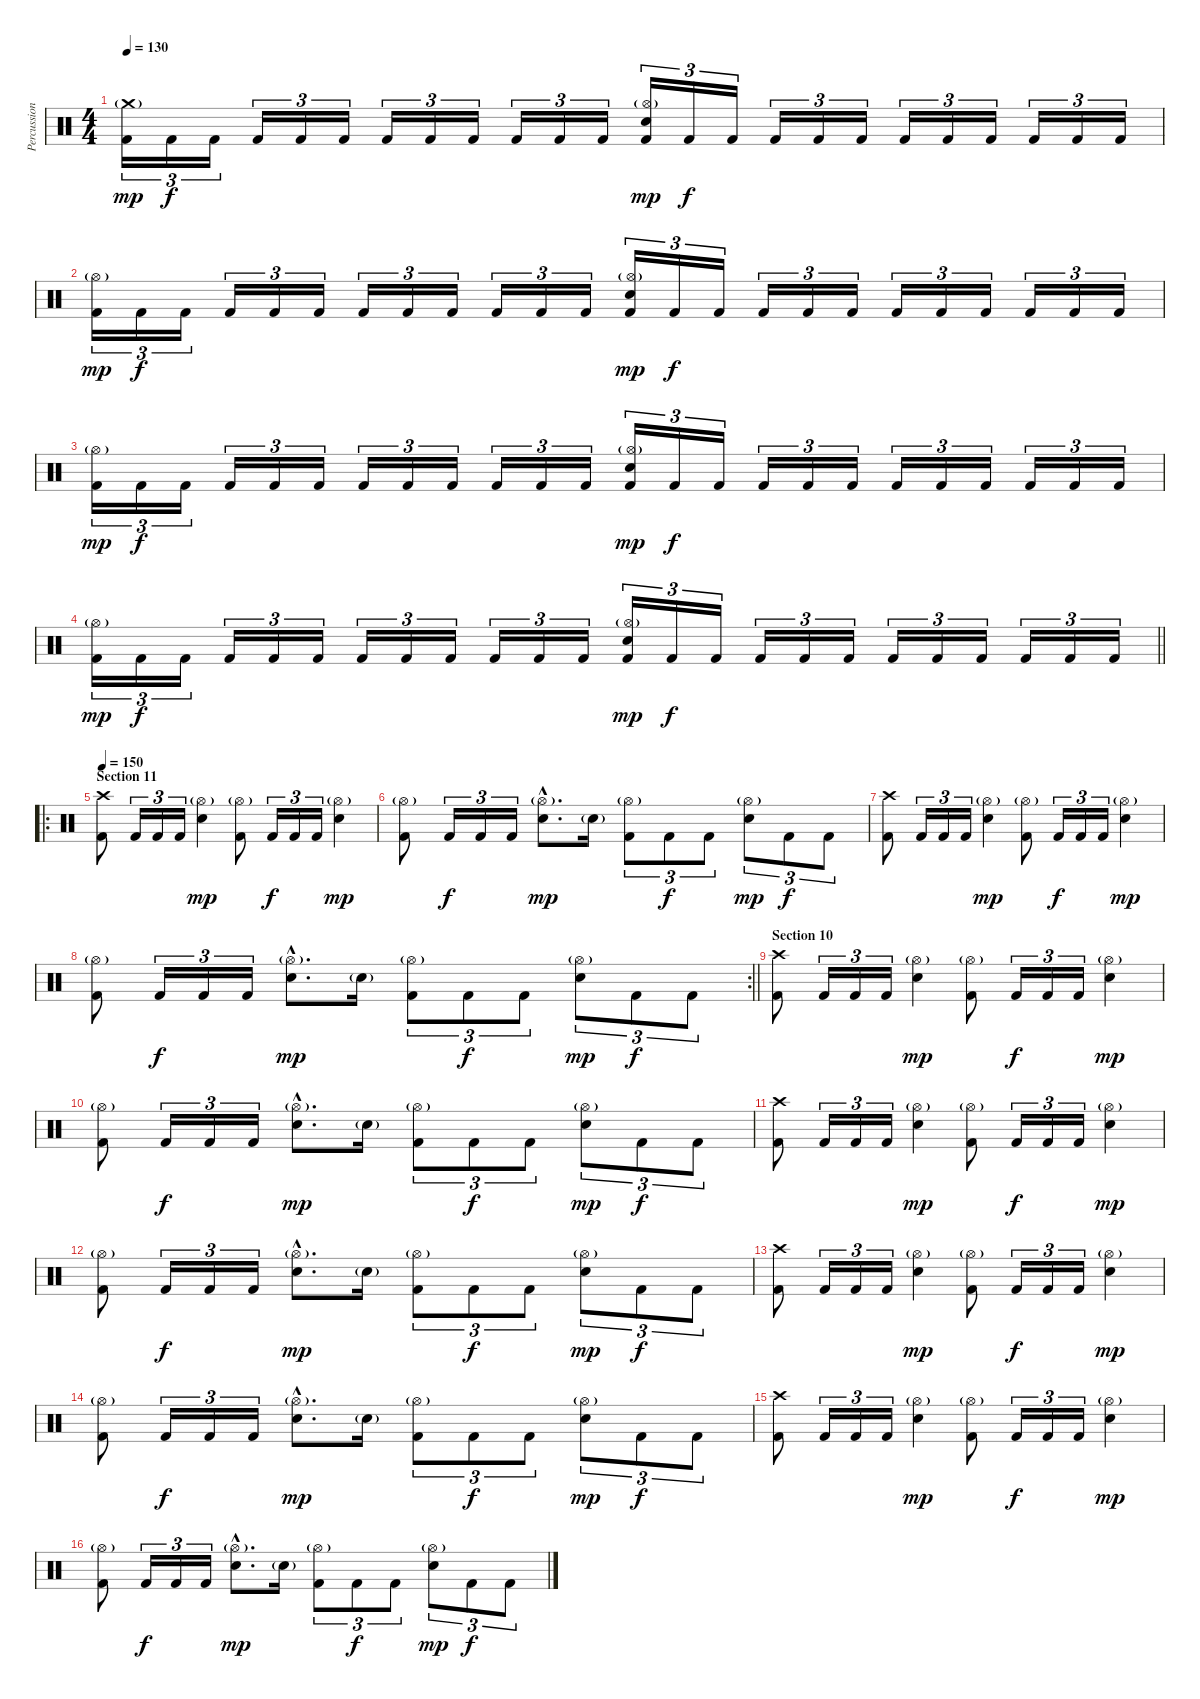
\track ("Percussions" "Percussion") {instrument percussion}
\staff {score}
\articulation defaults
\ts (4 4)
\tempo 130
\clef neutral
\ks c
("Crash medium (hit)"{g} "Kick (hit) 2").16{tu (3 2) dy mp} "Kick (hit) 2".16{tu (3 2) dy f} "Kick (hit) 2".16{tu (3 2)} "Kick (hit) 2".16{tu (3 2)} "Kick (hit) 2".16{tu (3 2)} "Kick (hit) 2".16{tu (3 2)} "Kick (hit) 2".16{tu (3 2)} "Kick (hit) 2".16{tu (3 2)} "Kick (hit) 2".16{tu (3 2)} "Kick (hit) 2".16{tu (3 2)} "Kick (hit) 2".16{tu (3 2)} "Kick (hit) 2".16{tu (3 2)} ("Hi-Hat (open)"{g} "Electric Snare (hit)" "Kick (hit) 2").16{tu (3 2) dy mp} "Kick (hit) 2".16{tu (3 2) dy f} "Kick (hit) 2".16{tu (3 2)} "Kick (hit) 2".16{tu (3 2)} "Kick (hit) 2".16{tu (3 2)} "Kick (hit) 2".16{tu (3 2)} "Kick (hit) 2".16{tu (3 2)} "Kick (hit) 2".16{tu (3 2)} "Kick (hit) 2".16{tu (3 2)} "Kick (hit) 2".16{tu (3 2)} "Kick (hit) 2".16{tu (3 2)} "Kick (hit) 2".16{tu (3 2)} |
("Hi-Hat (open)"{g} "Kick (hit) 2").16{tu (3 2) dy mp} "Kick (hit) 2".16{tu (3 2) dy f} "Kick (hit) 2".16{tu (3 2)} "Kick (hit) 2".16{tu (3 2)} "Kick (hit) 2".16{tu (3 2)} "Kick (hit) 2".16{tu (3 2)} "Kick (hit) 2".16{tu (3 2)} "Kick (hit) 2".16{tu (3 2)} "Kick (hit) 2".16{tu (3 2)} "Kick (hit) 2".16{tu (3 2)} "Kick (hit) 2".16{tu (3 2)} "Kick (hit) 2".16{tu (3 2)} ("Hi-Hat (open)"{g} "Electric Snare (hit)" "Kick (hit) 2").16{tu (3 2) dy mp} "Kick (hit) 2".16{tu (3 2) dy f} "Kick (hit) 2".16{tu (3 2)} "Kick (hit) 2".16{tu (3 2)} "Kick (hit) 2".16{tu (3 2)} "Kick (hit) 2".16{tu (3 2)} "Kick (hit) 2".16{tu (3 2)} "Kick (hit) 2".16{tu (3 2)} "Kick (hit) 2".16{tu (3 2)} "Kick (hit) 2".16{tu (3 2)} "Kick (hit) 2".16{tu (3 2)} "Kick (hit) 2".16{tu (3 2)} |
("Hi-Hat (open)"{g} "Kick (hit) 2").16{tu (3 2) dy mp} "Kick (hit) 2".16{tu (3 2) dy f} "Kick (hit) 2".16{tu (3 2)} "Kick (hit) 2".16{tu (3 2)} "Kick (hit) 2".16{tu (3 2)} "Kick (hit) 2".16{tu (3 2)} "Kick (hit) 2".16{tu (3 2)} "Kick (hit) 2".16{tu (3 2)} "Kick (hit) 2".16{tu (3 2)} "Kick (hit) 2".16{tu (3 2)} "Kick (hit) 2".16{tu (3 2)} "Kick (hit) 2".16{tu (3 2)} ("Hi-Hat (open)"{g} "Electric Snare (hit)" "Kick (hit) 2").16{tu (3 2) dy mp} "Kick (hit) 2".16{tu (3 2) dy f} "Kick (hit) 2".16{tu (3 2)} "Kick (hit) 2".16{tu (3 2)} "Kick (hit) 2".16{tu (3 2)} "Kick (hit) 2".16{tu (3 2)} "Kick (hit) 2".16{tu (3 2)} "Kick (hit) 2".16{tu (3 2)} "Kick (hit) 2".16{tu (3 2)} "Kick (hit) 2".16{tu (3 2)} "Kick (hit) 2".16{tu (3 2)} "Kick (hit) 2".16{tu (3 2)} |
\barLineRight lightlight
("Hi-Hat (open)"{g} "Kick (hit) 2").16{tu (3 2) dy mp} "Kick (hit) 2".16{tu (3 2) dy f} "Kick (hit) 2".16{tu (3 2)} "Kick (hit) 2".16{tu (3 2)} "Kick (hit) 2".16{tu (3 2)} "Kick (hit) 2".16{tu (3 2)} "Kick (hit) 2".16{tu (3 2)} "Kick (hit) 2".16{tu (3 2)} "Kick (hit) 2".16{tu (3 2)} "Kick (hit) 2".16{tu (3 2)} "Kick (hit) 2".16{tu (3 2)} "Kick (hit) 2".16{tu (3 2)} ("Hi-Hat (open)"{g} "Electric Snare (hit)" "Kick (hit) 2").16{tu (3 2) dy mp} "Kick (hit) 2".16{tu (3 2) dy f} "Kick (hit) 2".16{tu (3 2)} "Kick (hit) 2".16{tu (3 2)} "Kick (hit) 2".16{tu (3 2)} "Kick (hit) 2".16{tu (3 2)} "Kick (hit) 2".16{tu (3 2)} "Kick (hit) 2".16{tu (3 2)} "Kick (hit) 2".16{tu (3 2)} "Kick (hit) 2".16{tu (3 2)} "Kick (hit) 2".16{tu (3 2)} "Kick (hit) 2".16{tu (3 2)} |
\ro
\section ("" "Section 11")
\tempo 150
("Crash high (hit)" "Kick (hit) 2").8 "Kick (hit) 2".16{tu (3 2)} "Kick (hit) 2".16{tu (3 2)} "Kick (hit) 2".16{tu (3 2)} ("Hi-Hat (open)"{g} "Electric Snare (hit)").4{dy mp} ("Hi-Hat (open)"{g} "Kick (hit) 2").8 "Kick (hit) 2".16{tu (3 2) dy f} "Kick (hit) 2".16{tu (3 2)} "Kick (hit) 2".16{tu (3 2)} ("Hi-Hat (open)"{g} "Electric Snare (hit)").4{dy mp} |
("Hi-Hat (open)"{g} "Kick (hit) 2").8 "Kick (hit) 2".16{tu (3 2) dy f} "Kick (hit) 2".16{tu (3 2)} "Kick (hit) 2".16{tu (3 2)} ("Hi-Hat (open)"{g hac} "Electric Snare (hit)"{hac}).8{d dy mp} "Electric Snare (hit)"{g}.16 ("Hi-Hat (open)"{g} "Kick (hit) 2").8{tu (3 2)} "Kick (hit) 2".8{tu (3 2) dy f} "Kick (hit) 2".8{tu (3 2)} ("Hi-Hat (open)"{g} "Electric Snare (hit)").8{tu (3 2) dy mp} "Kick (hit) 2".8{tu (3 2) dy f} "Kick (hit) 2".8{tu (3 2)} |
("Crash high (hit)" "Kick (hit) 2").8 "Kick (hit) 2".16{tu (3 2)} "Kick (hit) 2".16{tu (3 2)} "Kick (hit) 2".16{tu (3 2)} ("Hi-Hat (open)"{g} "Electric Snare (hit)").4{dy mp} ("Hi-Hat (open)"{g} "Kick (hit) 2").8 "Kick (hit) 2".16{tu (3 2) dy f} "Kick (hit) 2".16{tu (3 2)} "Kick (hit) 2".16{tu (3 2)} ("Hi-Hat (open)"{g} "Electric Snare (hit)").4{dy mp} |
\rc 2
\barLineRight lightlight
("Hi-Hat (open)"{g} "Kick (hit) 2").8 "Kick (hit) 2".16{tu (3 2) dy f} "Kick (hit) 2".16{tu (3 2)} "Kick (hit) 2".16{tu (3 2)} ("Hi-Hat (open)"{g hac} "Electric Snare (hit)"{hac}).8{d dy mp} "Electric Snare (hit)"{g}.16 ("Hi-Hat (open)"{g} "Kick (hit) 2").8{tu (3 2)} "Kick (hit) 2".8{tu (3 2) dy f} "Kick (hit) 2".8{tu (3 2)} ("Hi-Hat (open)"{g} "Electric Snare (hit)").8{tu (3 2) dy mp} "Kick (hit) 2".8{tu (3 2) dy f} "Kick (hit) 2".8{tu (3 2)} |
\section ("" "Section 10")
("Crash high (hit)" "Kick (hit) 2").8 "Kick (hit) 2".16{tu (3 2)} "Kick (hit) 2".16{tu (3 2)} "Kick (hit) 2".16{tu (3 2)} ("Hi-Hat (open)"{g} "Electric Snare (hit)").4{dy mp} ("Hi-Hat (open)"{g} "Kick (hit) 2").8 "Kick (hit) 2".16{tu (3 2) dy f} "Kick (hit) 2".16{tu (3 2)} "Kick (hit) 2".16{tu (3 2)} ("Hi-Hat (open)"{g} "Electric Snare (hit)").4{dy mp} |
("Hi-Hat (open)"{g} "Kick (hit) 2").8 "Kick (hit) 2".16{tu (3 2) dy f} "Kick (hit) 2".16{tu (3 2)} "Kick (hit) 2".16{tu (3 2)} ("Hi-Hat (open)"{g hac} "Electric Snare (hit)"{hac}).8{d dy mp} "Electric Snare (hit)"{g}.16 ("Hi-Hat (open)"{g} "Kick (hit) 2").8{tu (3 2)} "Kick (hit) 2".8{tu (3 2) dy f} "Kick (hit) 2".8{tu (3 2)} ("Hi-Hat (open)"{g} "Electric Snare (hit)").8{tu (3 2) dy mp} "Kick (hit) 2".8{tu (3 2) dy f} "Kick (hit) 2".8{tu (3 2)} |
("Crash high (hit)" "Kick (hit) 2").8 "Kick (hit) 2".16{tu (3 2)} "Kick (hit) 2".16{tu (3 2)} "Kick (hit) 2".16{tu (3 2)} ("Hi-Hat (open)"{g} "Electric Snare (hit)").4{dy mp} ("Hi-Hat (open)"{g} "Kick (hit) 2").8 "Kick (hit) 2".16{tu (3 2) dy f} "Kick (hit) 2".16{tu (3 2)} "Kick (hit) 2".16{tu (3 2)} ("Hi-Hat (open)"{g} "Electric Snare (hit)").4{dy mp} |
("Hi-Hat (open)"{g} "Kick (hit) 2").8 "Kick (hit) 2".16{tu (3 2) dy f} "Kick (hit) 2".16{tu (3 2)} "Kick (hit) 2".16{tu (3 2)} ("Hi-Hat (open)"{g hac} "Electric Snare (hit)"{hac}).8{d dy mp} "Electric Snare (hit)"{g}.16 ("Hi-Hat (open)"{g} "Kick (hit) 2").8{tu (3 2)} "Kick (hit) 2".8{tu (3 2) dy f} "Kick (hit) 2".8{tu (3 2)} ("Hi-Hat (open)"{g} "Electric Snare (hit)").8{tu (3 2) dy mp} "Kick (hit) 2".8{tu (3 2) dy f} "Kick (hit) 2".8{tu (3 2)} |
("Crash high (hit)" "Kick (hit) 2").8 "Kick (hit) 2".16{tu (3 2)} "Kick (hit) 2".16{tu (3 2)} "Kick (hit) 2".16{tu (3 2)} ("Hi-Hat (open)"{g} "Electric Snare (hit)").4{dy mp} ("Hi-Hat (open)"{g} "Kick (hit) 2").8 "Kick (hit) 2".16{tu (3 2) dy f} "Kick (hit) 2".16{tu (3 2)} "Kick (hit) 2".16{tu (3 2)} ("Hi-Hat (open)"{g} "Electric Snare (hit)").4{dy mp} |
("Hi-Hat (open)"{g} "Kick (hit) 2").8 "Kick (hit) 2".16{tu (3 2) dy f} "Kick (hit) 2".16{tu (3 2)} "Kick (hit) 2".16{tu (3 2)} ("Hi-Hat (open)"{g hac} "Electric Snare (hit)"{hac}).8{d dy mp} "Electric Snare (hit)"{g}.16 ("Hi-Hat (open)"{g} "Kick (hit) 2").8{tu (3 2)} "Kick (hit) 2".8{tu (3 2) dy f} "Kick (hit) 2".8{tu (3 2)} ("Hi-Hat (open)"{g} "Electric Snare (hit)").8{tu (3 2) dy mp} "Kick (hit) 2".8{tu (3 2) dy f} "Kick (hit) 2".8{tu (3 2)} |
("Crash high (hit)" "Kick (hit) 2").8 "Kick (hit) 2".16{tu (3 2)} "Kick (hit) 2".16{tu (3 2)} "Kick (hit) 2".16{tu (3 2)} ("Hi-Hat (open)"{g} "Electric Snare (hit)").4{dy mp} ("Hi-Hat (open)"{g} "Kick (hit) 2").8 "Kick (hit) 2".16{tu (3 2) dy f} "Kick (hit) 2".16{tu (3 2)} "Kick (hit) 2".16{tu (3 2)} ("Hi-Hat (open)"{g} "Electric Snare (hit)").4{dy mp} |
("Hi-Hat (open)"{g} "Kick (hit) 2").8 "Kick (hit) 2".16{tu (3 2) dy f} "Kick (hit) 2".16{tu (3 2)} "Kick (hit) 2".16{tu (3 2)} ("Hi-Hat (open)"{g hac} "Electric Snare (hit)"{hac}).8{d dy mp} "Electric Snare (hit)"{g}.16 ("Hi-Hat (open)"{g} "Kick (hit) 2").8{tu (3 2)} "Kick (hit) 2".8{tu (3 2) dy f} "Kick (hit) 2".8{tu (3 2)} ("Hi-Hat (open)"{g} "Electric Snare (hit)").8{tu (3 2) dy mp} "Kick (hit) 2".8{tu (3 2) dy f} "Kick (hit) 2".8{tu (3 2)}
